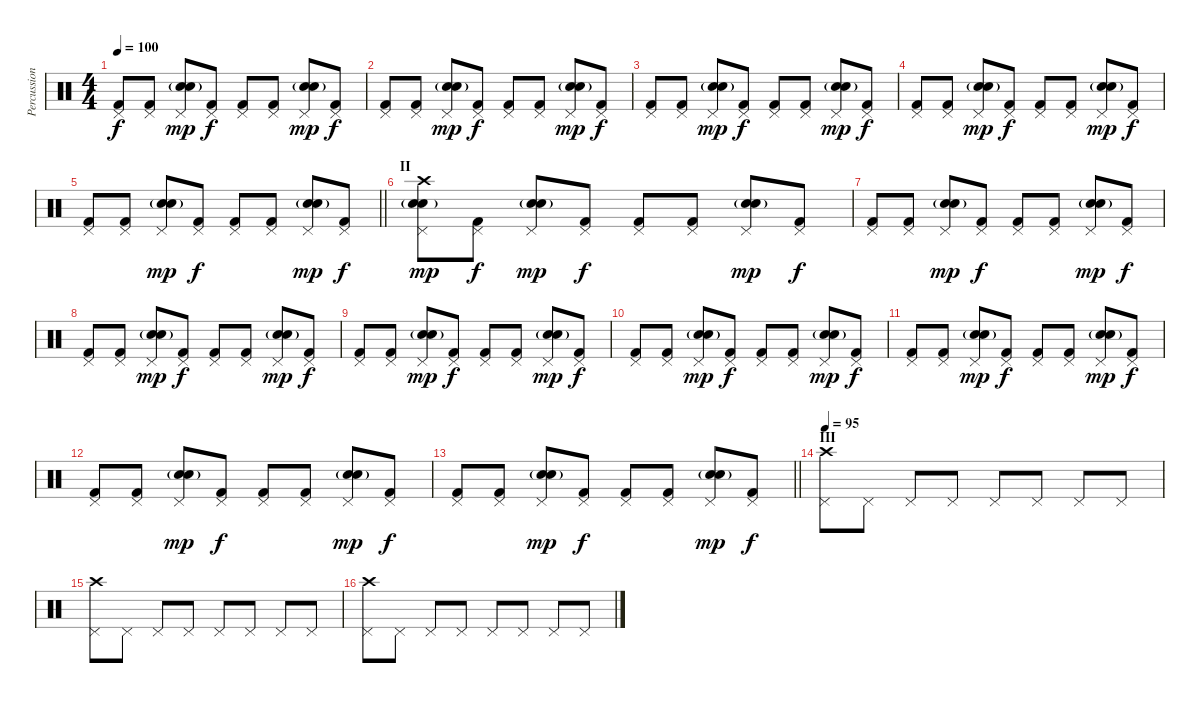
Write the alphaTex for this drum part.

\track ("Percussion" "Percussion") {instrument percussion}
\staff {score}
\articulation defaults
\ts (4 4)
\tempo 100
\clef neutral
\ks c
("Kick (hit) 2" "Pedal Hi-Hat (hit)").8{dy f} ("Kick (hit) 2" "Pedal Hi-Hat (hit)").8 ("Electric Snare (hit)" "Snare (hit) 2"{g} "Pedal Hi-Hat (hit)").8{dy mp} ("Kick (hit) 2" "Pedal Hi-Hat (hit)").8{dy f} ("Kick (hit) 2" "Pedal Hi-Hat (hit)").8 ("Kick (hit) 2" "Pedal Hi-Hat (hit)").8 ("Electric Snare (hit)" "Snare (hit) 2"{g} "Pedal Hi-Hat (hit)").8{dy mp} ("Kick (hit) 2" "Pedal Hi-Hat (hit)").8{dy f} |
("Kick (hit) 2" "Pedal Hi-Hat (hit)").8 ("Kick (hit) 2" "Pedal Hi-Hat (hit)").8 ("Electric Snare (hit)" "Snare (hit) 2"{g} "Pedal Hi-Hat (hit)").8{dy mp} ("Kick (hit) 2" "Pedal Hi-Hat (hit)").8{dy f} ("Kick (hit) 2" "Pedal Hi-Hat (hit)").8 ("Kick (hit) 2" "Pedal Hi-Hat (hit)").8 ("Electric Snare (hit)" "Snare (hit) 2"{g} "Pedal Hi-Hat (hit)").8{dy mp} ("Kick (hit) 2" "Pedal Hi-Hat (hit)").8{dy f} |
("Kick (hit) 2" "Pedal Hi-Hat (hit)").8 ("Kick (hit) 2" "Pedal Hi-Hat (hit)").8 ("Electric Snare (hit)" "Snare (hit) 2"{g} "Pedal Hi-Hat (hit)").8{dy mp} ("Kick (hit) 2" "Pedal Hi-Hat (hit)").8{dy f} ("Kick (hit) 2" "Pedal Hi-Hat (hit)").8 ("Kick (hit) 2" "Pedal Hi-Hat (hit)").8 ("Electric Snare (hit)" "Snare (hit) 2"{g} "Pedal Hi-Hat (hit)").8{dy mp} ("Kick (hit) 2" "Pedal Hi-Hat (hit)").8{dy f} |
("Kick (hit) 2" "Pedal Hi-Hat (hit)").8 ("Kick (hit) 2" "Pedal Hi-Hat (hit)").8 ("Electric Snare (hit)" "Snare (hit) 2"{g} "Pedal Hi-Hat (hit)").8{dy mp} ("Kick (hit) 2" "Pedal Hi-Hat (hit)").8{dy f} ("Kick (hit) 2" "Pedal Hi-Hat (hit)").8 ("Kick (hit) 2" "Pedal Hi-Hat (hit)").8 ("Electric Snare (hit)" "Snare (hit) 2"{g} "Pedal Hi-Hat (hit)").8{dy mp} ("Kick (hit) 2" "Pedal Hi-Hat (hit)").8{dy f} |
\barLineRight lightlight
("Kick (hit) 2" "Pedal Hi-Hat (hit)").8 ("Kick (hit) 2" "Pedal Hi-Hat (hit)").8 ("Electric Snare (hit)" "Snare (hit) 2"{g} "Pedal Hi-Hat (hit)").8{dy mp} ("Kick (hit) 2" "Pedal Hi-Hat (hit)").8{dy f} ("Kick (hit) 2" "Pedal Hi-Hat (hit)").8 ("Kick (hit) 2" "Pedal Hi-Hat (hit)").8 ("Electric Snare (hit)" "Snare (hit) 2"{g} "Pedal Hi-Hat (hit)").8{dy mp} ("Kick (hit) 2" "Pedal Hi-Hat (hit)").8{dy f} |
\section ("" "II")
("Crash high (hit)" "Electric Snare (hit)" "Snare (hit) 2"{g} "Pedal Hi-Hat (hit)").8{dy mp} ("Kick (hit) 2" "Pedal Hi-Hat (hit)").8{dy f} ("Electric Snare (hit)" "Snare (hit) 2"{g} "Pedal Hi-Hat (hit)").8{dy mp} ("Kick (hit) 2" "Pedal Hi-Hat (hit)").8{dy f} ("Kick (hit) 2" "Pedal Hi-Hat (hit)").8 ("Kick (hit) 2" "Pedal Hi-Hat (hit)").8 ("Electric Snare (hit)" "Snare (hit) 2"{g} "Pedal Hi-Hat (hit)").8{dy mp} ("Kick (hit) 2" "Pedal Hi-Hat (hit)").8{dy f} |
("Kick (hit) 2" "Pedal Hi-Hat (hit)").8 ("Kick (hit) 2" "Pedal Hi-Hat (hit)").8 ("Electric Snare (hit)" "Snare (hit) 2"{g} "Pedal Hi-Hat (hit)").8{dy mp} ("Kick (hit) 2" "Pedal Hi-Hat (hit)").8{dy f} ("Kick (hit) 2" "Pedal Hi-Hat (hit)").8 ("Kick (hit) 2" "Pedal Hi-Hat (hit)").8 ("Electric Snare (hit)" "Snare (hit) 2"{g} "Pedal Hi-Hat (hit)").8{dy mp} ("Kick (hit) 2" "Pedal Hi-Hat (hit)").8{dy f} |
("Kick (hit) 2" "Pedal Hi-Hat (hit)").8 ("Kick (hit) 2" "Pedal Hi-Hat (hit)").8 ("Electric Snare (hit)" "Snare (hit) 2"{g} "Pedal Hi-Hat (hit)").8{dy mp} ("Kick (hit) 2" "Pedal Hi-Hat (hit)").8{dy f} ("Kick (hit) 2" "Pedal Hi-Hat (hit)").8 ("Kick (hit) 2" "Pedal Hi-Hat (hit)").8 ("Electric Snare (hit)" "Snare (hit) 2"{g} "Pedal Hi-Hat (hit)").8{dy mp} ("Kick (hit) 2" "Pedal Hi-Hat (hit)").8{dy f} |
("Kick (hit) 2" "Pedal Hi-Hat (hit)").8 ("Kick (hit) 2" "Pedal Hi-Hat (hit)").8 ("Electric Snare (hit)" "Snare (hit) 2"{g} "Pedal Hi-Hat (hit)").8{dy mp} ("Kick (hit) 2" "Pedal Hi-Hat (hit)").8{dy f} ("Kick (hit) 2" "Pedal Hi-Hat (hit)").8 ("Kick (hit) 2" "Pedal Hi-Hat (hit)").8 ("Electric Snare (hit)" "Snare (hit) 2"{g} "Pedal Hi-Hat (hit)").8{dy mp} ("Kick (hit) 2" "Pedal Hi-Hat (hit)").8{dy f} |
("Kick (hit) 2" "Pedal Hi-Hat (hit)").8 ("Kick (hit) 2" "Pedal Hi-Hat (hit)").8 ("Electric Snare (hit)" "Snare (hit) 2"{g} "Pedal Hi-Hat (hit)").8{dy mp} ("Kick (hit) 2" "Pedal Hi-Hat (hit)").8{dy f} ("Kick (hit) 2" "Pedal Hi-Hat (hit)").8 ("Kick (hit) 2" "Pedal Hi-Hat (hit)").8 ("Electric Snare (hit)" "Snare (hit) 2"{g} "Pedal Hi-Hat (hit)").8{dy mp} ("Kick (hit) 2" "Pedal Hi-Hat (hit)").8{dy f} |
("Kick (hit) 2" "Pedal Hi-Hat (hit)").8 ("Kick (hit) 2" "Pedal Hi-Hat (hit)").8 ("Electric Snare (hit)" "Snare (hit) 2"{g} "Pedal Hi-Hat (hit)").8{dy mp} ("Kick (hit) 2" "Pedal Hi-Hat (hit)").8{dy f} ("Kick (hit) 2" "Pedal Hi-Hat (hit)").8 ("Kick (hit) 2" "Pedal Hi-Hat (hit)").8 ("Electric Snare (hit)" "Snare (hit) 2"{g} "Pedal Hi-Hat (hit)").8{dy mp} ("Kick (hit) 2" "Pedal Hi-Hat (hit)").8{dy f} |
("Kick (hit) 2" "Pedal Hi-Hat (hit)").8 ("Kick (hit) 2" "Pedal Hi-Hat (hit)").8 ("Electric Snare (hit)" "Snare (hit) 2"{g} "Pedal Hi-Hat (hit)").8{dy mp} ("Kick (hit) 2" "Pedal Hi-Hat (hit)").8{dy f} ("Kick (hit) 2" "Pedal Hi-Hat (hit)").8 ("Kick (hit) 2" "Pedal Hi-Hat (hit)").8 ("Electric Snare (hit)" "Snare (hit) 2"{g} "Pedal Hi-Hat (hit)").8{dy mp} ("Kick (hit) 2" "Pedal Hi-Hat (hit)").8{dy f} |
\barLineRight lightlight
("Kick (hit) 2" "Pedal Hi-Hat (hit)").8 ("Kick (hit) 2" "Pedal Hi-Hat (hit)").8 ("Electric Snare (hit)" "Snare (hit) 2"{g} "Pedal Hi-Hat (hit)").8{dy mp} ("Kick (hit) 2" "Pedal Hi-Hat (hit)").8{dy f} ("Kick (hit) 2" "Pedal Hi-Hat (hit)").8 ("Kick (hit) 2" "Pedal Hi-Hat (hit)").8 ("Electric Snare (hit)" "Snare (hit) 2"{g} "Pedal Hi-Hat (hit)").8{dy mp} ("Kick (hit) 2" "Pedal Hi-Hat (hit)").8{dy f} |
\section ("" "III")
\tempo 95
("Crash high (hit)" "Pedal Hi-Hat (hit)").8 "Pedal Hi-Hat (hit)".8 "Pedal Hi-Hat (hit)".8 "Pedal Hi-Hat (hit)".8 "Pedal Hi-Hat (hit)".8 "Pedal Hi-Hat (hit)".8 "Pedal Hi-Hat (hit)".8 "Pedal Hi-Hat (hit)".8 |
("Crash high (hit)" "Pedal Hi-Hat (hit)").8 "Pedal Hi-Hat (hit)".8 "Pedal Hi-Hat (hit)".8 "Pedal Hi-Hat (hit)".8 "Pedal Hi-Hat (hit)".8 "Pedal Hi-Hat (hit)".8 "Pedal Hi-Hat (hit)".8 "Pedal Hi-Hat (hit)".8 |
("Crash high (hit)" "Pedal Hi-Hat (hit)").8 "Pedal Hi-Hat (hit)".8 "Pedal Hi-Hat (hit)".8 "Pedal Hi-Hat (hit)".8 "Pedal Hi-Hat (hit)".8 "Pedal Hi-Hat (hit)".8 "Pedal Hi-Hat (hit)".8 "Pedal Hi-Hat (hit)".8
